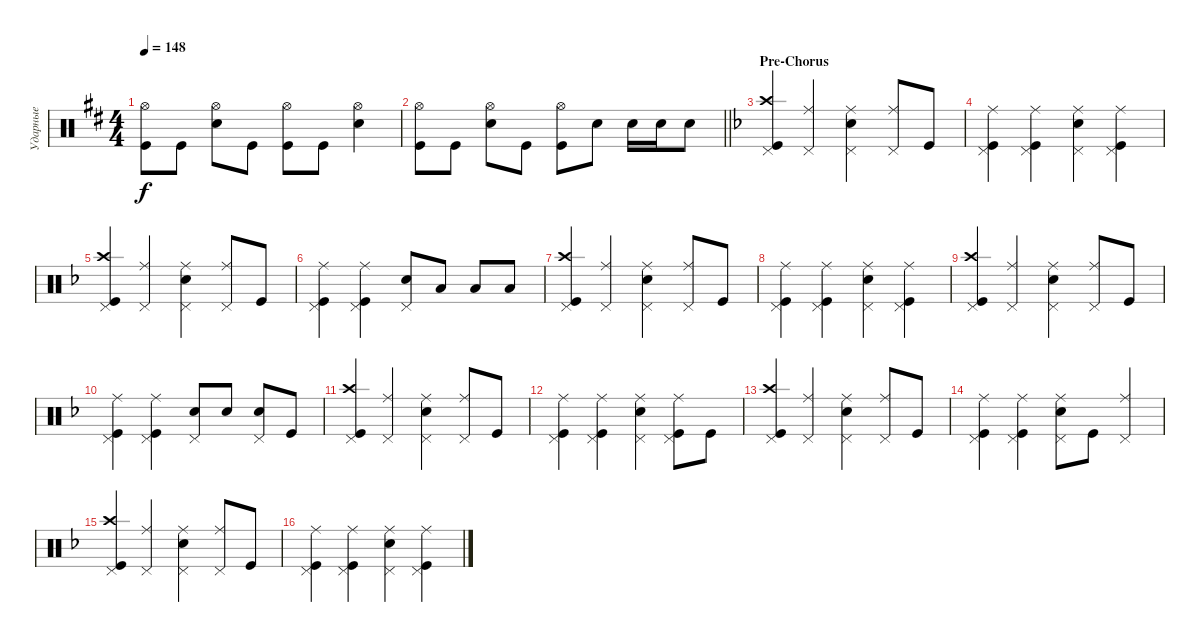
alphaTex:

\track ("Ударные" "Ударные") {instrument percussion}
\staff {score}
\articulation defaults
\ts (4 4)
\tempo 148
\clef neutral
\ks bminor
("Hi-Hat (open)" "Kick (hit)").8{dy f} "Kick (hit)".8 ("Snare (hit) 2" "Hi-Hat (open)").8 "Kick (hit)".8 ("Kick (hit)" "Hi-Hat (open)").8 "Kick (hit)".8 ("Snare (hit) 2" "Hi-Hat (open)").4 |
\barLineRight lightlight
("Hi-Hat (open)" "Kick (hit)").8 "Kick (hit)".8 ("Snare (hit) 2" "Hi-Hat (open)").8 "Kick (hit)".8 ("Kick (hit)" "Hi-Hat (open)").8 "Snare (hit) 2".8 "Snare (hit) 2".16 "Snare (hit) 2".16 "Snare (hit) 2".8 |
\section ("" "Pre-Chorus")
\ks dminor
("Kick (hit)" "Crash high (hit)" "Pedal Hi-Hat (hit)").4 ("Pedal Hi-Hat (hit)" "Ride (middle)").4 ("Pedal Hi-Hat (hit)" "Snare (hit) 2" "Ride (middle)").4 ("Pedal Hi-Hat (hit)" "Ride (middle)").8 "Kick (hit)".8 |
("Kick (hit)" "Pedal Hi-Hat (hit)" "Ride (middle)").4 ("Kick (hit)" "Pedal Hi-Hat (hit)" "Ride (middle)").4 ("Snare (hit) 2" "Pedal Hi-Hat (hit)" "Ride (middle)").4 ("Kick (hit)" "Pedal Hi-Hat (hit)" "Ride (middle)").4 |
("Kick (hit)" "Crash high (hit)" "Pedal Hi-Hat (hit)").4 ("Pedal Hi-Hat (hit)" "Ride (middle)").4 ("Pedal Hi-Hat (hit)" "Snare (hit) 2" "Ride (middle)").4 ("Pedal Hi-Hat (hit)" "Ride (middle)").8 "Kick (hit)".8 |
("Kick (hit)" "Pedal Hi-Hat (hit)" "Ride (middle)").4 ("Kick (hit)" "Pedal Hi-Hat (hit)" "Ride (middle)").4 ("Snare (hit) 2" "Pedal Hi-Hat (hit)").8 "Low Tom (hit)".8 "Low Tom (hit)".8 "Low Tom (hit)".8 |
("Kick (hit)" "Crash high (hit)" "Pedal Hi-Hat (hit)").4 ("Pedal Hi-Hat (hit)" "Ride (middle)").4 ("Pedal Hi-Hat (hit)" "Snare (hit) 2" "Ride (middle)").4 ("Pedal Hi-Hat (hit)" "Ride (middle)").8 "Kick (hit)".8 |
("Kick (hit)" "Pedal Hi-Hat (hit)" "Ride (middle)").4 ("Kick (hit)" "Pedal Hi-Hat (hit)" "Ride (middle)").4 ("Snare (hit) 2" "Pedal Hi-Hat (hit)" "Ride (middle)").4 ("Kick (hit)" "Pedal Hi-Hat (hit)" "Ride (middle)").4 |
("Kick (hit)" "Crash high (hit)" "Pedal Hi-Hat (hit)").4 ("Pedal Hi-Hat (hit)" "Ride (middle)").4 ("Pedal Hi-Hat (hit)" "Snare (hit) 2" "Ride (middle)").4 ("Pedal Hi-Hat (hit)" "Ride (middle)").8 "Kick (hit)".8 |
("Kick (hit)" "Pedal Hi-Hat (hit)" "Ride (middle)").4 ("Kick (hit)" "Pedal Hi-Hat (hit)" "Ride (middle)").4 ("Snare (hit) 2" "Pedal Hi-Hat (hit)").8 "Snare (hit) 2".8 ("Snare (hit) 2" "Pedal Hi-Hat (hit)").8 "Kick (hit)".8 |
("Kick (hit)" "Crash high (hit)" "Pedal Hi-Hat (hit)").4 ("Pedal Hi-Hat (hit)" "Ride (middle)").4 ("Pedal Hi-Hat (hit)" "Snare (hit) 2" "Ride (middle)").4 ("Pedal Hi-Hat (hit)" "Ride (middle)").8 "Kick (hit)".8 |
("Kick (hit)" "Pedal Hi-Hat (hit)" "Ride (middle)").4 ("Kick (hit)" "Pedal Hi-Hat (hit)" "Ride (middle)").4 ("Snare (hit) 2" "Pedal Hi-Hat (hit)" "Ride (middle)").4 ("Kick (hit)" "Pedal Hi-Hat (hit)" "Ride (middle)").8 "Kick (hit)".8 |
("Kick (hit)" "Crash high (hit)" "Pedal Hi-Hat (hit)").4 ("Pedal Hi-Hat (hit)" "Ride (middle)").4 ("Pedal Hi-Hat (hit)" "Snare (hit) 2" "Ride (middle)").4 ("Pedal Hi-Hat (hit)" "Ride (middle)").8 "Kick (hit)".8 |
("Kick (hit)" "Pedal Hi-Hat (hit)" "Ride (middle)").4 ("Kick (hit)" "Pedal Hi-Hat (hit)" "Ride (middle)").4 ("Snare (hit) 2" "Pedal Hi-Hat (hit)" "Ride (middle)").8 "Kick (hit)".8 ("Pedal Hi-Hat (hit)" "Ride (middle)").4 |
("Kick (hit)" "Crash high (hit)" "Pedal Hi-Hat (hit)").4 ("Pedal Hi-Hat (hit)" "Ride (middle)").4 ("Pedal Hi-Hat (hit)" "Snare (hit) 2" "Ride (middle)").4 ("Pedal Hi-Hat (hit)" "Ride (middle)").8 "Kick (hit)".8 |
("Kick (hit)" "Pedal Hi-Hat (hit)" "Ride (middle)").4 ("Kick (hit)" "Pedal Hi-Hat (hit)" "Ride (middle)").4 ("Snare (hit) 2" "Pedal Hi-Hat (hit)" "Ride (middle)").4 ("Kick (hit)" "Pedal Hi-Hat (hit)" "Ride (middle)").4
